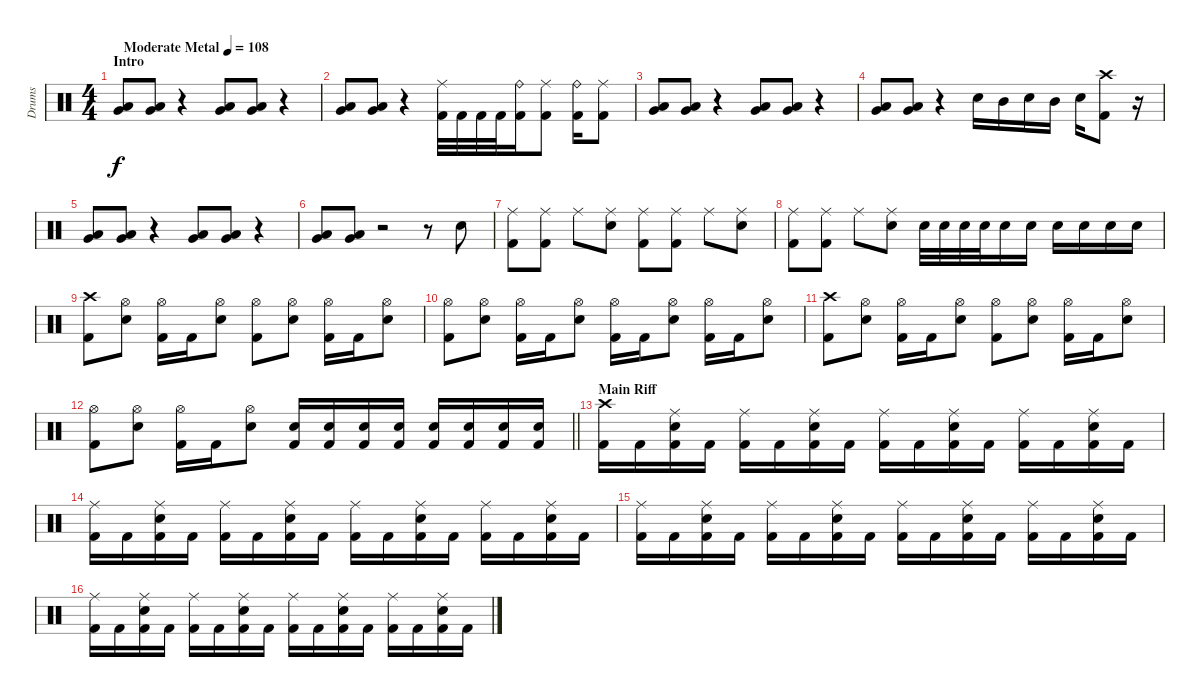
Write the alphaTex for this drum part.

\track ("Drums" "Drums") {instrument percussion}
\staff {score}
\articulation defaults
\ts (4 4)
\section ("" "Intro")
\tempo (108 "Moderate Metal")
\clef neutral
\ks c
("Very Low Tom (hit)" "Low Floor Tom (hit)").8{dy f} ("Very Low Tom (hit)" "Low Floor Tom (hit)").8 r.4 ("Very Low Tom (hit)" "Low Floor Tom (hit)").8 ("Very Low Tom (hit)" "Low Floor Tom (hit)").8 r.4 |
("Very Low Tom (hit)" "Low Floor Tom (hit)").8 ("Very Low Tom (hit)" "Low Floor Tom (hit)").8 r.4 ("Ride (middle)" "Kick (hit) 2").32 "Kick (hit) 2".32 "Kick (hit) 2".32 "Kick (hit) 2".32 ("Ride (bell)" "Kick (hit) 2").16 ("Ride (middle)" "Kick (hit) 2").8 ("Ride (bell)" "Kick (hit) 2").16 ("Ride (middle)" "Kick (hit) 2").8 |
("Very Low Tom (hit)" "Low Floor Tom (hit)").8 ("Very Low Tom (hit)" "Low Floor Tom (hit)").8 r.4 ("Very Low Tom (hit)" "Low Floor Tom (hit)").8 ("Very Low Tom (hit)" "Low Floor Tom (hit)").8 r.4 |
("Very Low Tom (hit)" "Low Floor Tom (hit)").8 ("Very Low Tom (hit)" "Low Floor Tom (hit)").8 r.4 "Electric Snare (hit)".16 "Mid Tom (hit)".16 "Electric Snare (hit)".16 "Mid Tom (hit)".16 "Electric Snare (hit)".16 ("Crash high (hit)" "Kick (hit) 2").8 r.16 |
("Very Low Tom (hit)" "Low Floor Tom (hit)").8 ("Very Low Tom (hit)" "Low Floor Tom (hit)").8 r.4 ("Very Low Tom (hit)" "Low Floor Tom (hit)").8 ("Very Low Tom (hit)" "Low Floor Tom (hit)").8 r.4 |
("Very Low Tom (hit)" "Low Floor Tom (hit)").8 ("Very Low Tom (hit)" "Low Floor Tom (hit)").8 r.2 r.8 "Electric Snare (hit)".8 |
("Ride (middle)" "Kick (hit) 2").8 ("Ride (middle)" "Kick (hit) 2").8 "Ride (middle)".8 ("Ride (middle)" "Electric Snare (hit)").8 ("Ride (middle)" "Kick (hit) 2").8 ("Ride (middle)" "Kick (hit) 2").8 "Ride (middle)".8 ("Ride (middle)" "Electric Snare (hit)").8 |
("Ride (middle)" "Kick (hit) 2").8 ("Ride (middle)" "Kick (hit) 2").8 "Ride (middle)".8 ("Ride (middle)" "Electric Snare (hit)").8 "Electric Snare (hit)".32 "Electric Snare (hit)".32 "Electric Snare (hit)".32 "Electric Snare (hit)".32 "Electric Snare (hit)".16 "Electric Snare (hit)".16 "Electric Snare (hit)".16 "Electric Snare (hit)".16 "Electric Snare (hit)".16 "Electric Snare (hit)".16 |
("Crash high (hit)" "Kick (hit) 2").8 ("Hi-Hat (open)" "Electric Snare (hit)").8 ("Hi-Hat (open)" "Kick (hit) 2").16 "Kick (hit) 2".16 ("Hi-Hat (open)" "Electric Snare (hit)").8 ("Hi-Hat (open)" "Kick (hit) 2").8 ("Hi-Hat (open)" "Electric Snare (hit)").8 ("Hi-Hat (open)" "Kick (hit) 2").16 "Kick (hit) 2".16 ("Hi-Hat (open)" "Electric Snare (hit)").8 |
("Hi-Hat (open)" "Kick (hit) 2").8 ("Hi-Hat (open)" "Electric Snare (hit)").8 ("Hi-Hat (open)" "Kick (hit) 2").16 "Kick (hit) 2".16 ("Hi-Hat (open)" "Electric Snare (hit)").8 ("Hi-Hat (open)" "Kick (hit) 2").16 "Kick (hit) 2".16 ("Hi-Hat (open)" "Electric Snare (hit)").8 ("Hi-Hat (open)" "Kick (hit) 2").16 "Kick (hit) 2".16 ("Hi-Hat (open)" "Electric Snare (hit)").8 |
("Crash high (hit)" "Kick (hit) 2").8 ("Hi-Hat (open)" "Electric Snare (hit)").8 ("Hi-Hat (open)" "Kick (hit) 2").16 "Kick (hit) 2".16 ("Hi-Hat (open)" "Electric Snare (hit)").8 ("Hi-Hat (open)" "Kick (hit) 2").8 ("Hi-Hat (open)" "Electric Snare (hit)").8 ("Hi-Hat (open)" "Kick (hit) 2").16 "Kick (hit) 2".16 ("Hi-Hat (open)" "Electric Snare (hit)").8 |
\barLineRight lightlight
("Hi-Hat (open)" "Kick (hit) 2").8 ("Hi-Hat (open)" "Electric Snare (hit)").8 ("Hi-Hat (open)" "Kick (hit) 2").16 "Kick (hit) 2".16 ("Hi-Hat (open)" "Electric Snare (hit)").8 ("Electric Snare (hit)" "Kick (hit) 2").16 ("Electric Snare (hit)" "Kick (hit) 2").16 ("Electric Snare (hit)" "Kick (hit) 2").16 ("Electric Snare (hit)" "Kick (hit) 2").16 ("Electric Snare (hit)" "Kick (hit) 2").16 ("Electric Snare (hit)" "Kick (hit) 2").16 ("Electric Snare (hit)" "Kick (hit) 2").16 ("Electric Snare (hit)" "Kick (hit) 2").16 |
\section ("" "Main Riff")
("Crash high (hit)" "Kick (hit) 2").16 "Kick (hit) 2".16 ("Ride (middle)" "Electric Snare (hit)" "Kick (hit) 2").16 "Kick (hit) 2".16 ("Ride (middle)" "Kick (hit) 2").16 "Kick (hit) 2".16 ("Ride (middle)" "Electric Snare (hit)" "Kick (hit) 2").16 "Kick (hit) 2".16 ("Ride (middle)" "Kick (hit) 2").16 "Kick (hit) 2".16 ("Ride (middle)" "Electric Snare (hit)" "Kick (hit) 2").16 "Kick (hit) 2".16 ("Ride (middle)" "Kick (hit) 2").16 "Kick (hit) 2".16 ("Ride (middle)" "Electric Snare (hit)" "Kick (hit) 2").16 "Kick (hit) 2".16 |
("Ride (middle)" "Kick (hit) 2").16 "Kick (hit) 2".16 ("Ride (middle)" "Electric Snare (hit)" "Kick (hit) 2").16 "Kick (hit) 2".16 ("Ride (middle)" "Kick (hit) 2").16 "Kick (hit) 2".16 ("Ride (middle)" "Electric Snare (hit)" "Kick (hit) 2").16 "Kick (hit) 2".16 ("Ride (middle)" "Kick (hit) 2").16 "Kick (hit) 2".16 ("Ride (middle)" "Electric Snare (hit)" "Kick (hit) 2").16 "Kick (hit) 2".16 ("Ride (middle)" "Kick (hit) 2").16 "Kick (hit) 2".16 ("Ride (middle)" "Electric Snare (hit)" "Kick (hit) 2").16 "Kick (hit) 2".16 |
("Ride (middle)" "Kick (hit) 2").16 "Kick (hit) 2".16 ("Ride (middle)" "Electric Snare (hit)" "Kick (hit) 2").16 "Kick (hit) 2".16 ("Ride (middle)" "Kick (hit) 2").16 "Kick (hit) 2".16 ("Ride (middle)" "Electric Snare (hit)" "Kick (hit) 2").16 "Kick (hit) 2".16 ("Ride (middle)" "Kick (hit) 2").16 "Kick (hit) 2".16 ("Ride (middle)" "Electric Snare (hit)" "Kick (hit) 2").16 "Kick (hit) 2".16 ("Ride (middle)" "Kick (hit) 2").16 "Kick (hit) 2".16 ("Ride (middle)" "Electric Snare (hit)" "Kick (hit) 2").16 "Kick (hit) 2".16 |
("Ride (middle)" "Kick (hit) 2").16 "Kick (hit) 2".16 ("Ride (middle)" "Electric Snare (hit)" "Kick (hit) 2").16 "Kick (hit) 2".16 ("Ride (middle)" "Kick (hit) 2").16 "Kick (hit) 2".16 ("Ride (middle)" "Electric Snare (hit)" "Kick (hit) 2").16 "Kick (hit) 2".16 ("Ride (middle)" "Kick (hit) 2").16 "Kick (hit) 2".16 ("Ride (middle)" "Electric Snare (hit)" "Kick (hit) 2").16 "Kick (hit) 2".16 ("Ride (middle)" "Kick (hit) 2").16 "Kick (hit) 2".16 ("Ride (middle)" "Electric Snare (hit)" "Kick (hit) 2").16 "Kick (hit) 2".16
